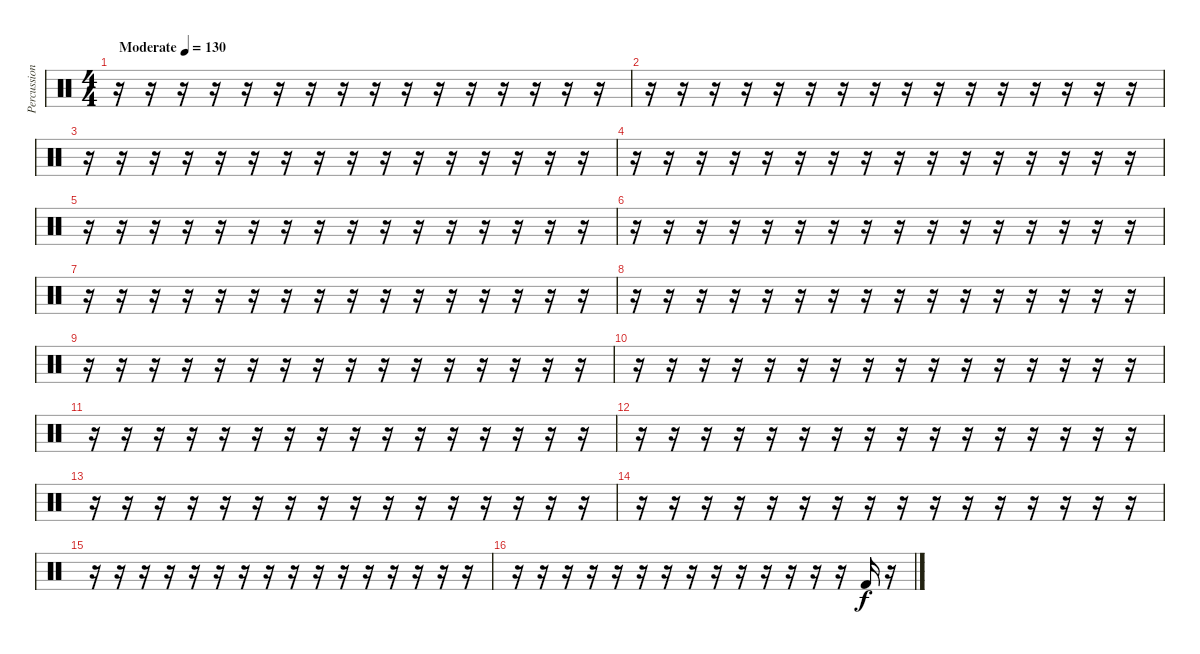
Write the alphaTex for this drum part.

\track ("Percussion" "Percussion") {instrument percussion}
\staff {score}
\articulation defaults
\ts (4 4)
\tempo (130 "Moderate")
\clef neutral
\ks c
r.16{dy f} r.16 r.16 r.16 r.16 r.16 r.16 r.16 r.16 r.16 r.16 r.16 r.16 r.16 r.16 r.16 |
r.16 r.16 r.16 r.16 r.16 r.16 r.16 r.16 r.16 r.16 r.16 r.16 r.16 r.16 r.16 r.16 |
r.16 r.16 r.16 r.16 r.16 r.16 r.16 r.16 r.16 r.16 r.16 r.16 r.16 r.16 r.16 r.16 |
r.16 r.16 r.16 r.16 r.16 r.16 r.16 r.16 r.16 r.16 r.16 r.16 r.16 r.16 r.16 r.16 |
r.16 r.16 r.16 r.16 r.16 r.16 r.16 r.16 r.16 r.16 r.16 r.16 r.16 r.16 r.16 r.16 |
r.16 r.16 r.16 r.16 r.16 r.16 r.16 r.16 r.16 r.16 r.16 r.16 r.16 r.16 r.16 r.16 |
r.16 r.16 r.16 r.16 r.16 r.16 r.16 r.16 r.16 r.16 r.16 r.16 r.16 r.16 r.16 r.16 |
r.16 r.16 r.16 r.16 r.16 r.16 r.16 r.16 r.16 r.16 r.16 r.16 r.16 r.16 r.16 r.16 |
r.16 r.16 r.16 r.16 r.16 r.16 r.16 r.16 r.16 r.16 r.16 r.16 r.16 r.16 r.16 r.16 |
r.16 r.16 r.16 r.16 r.16 r.16 r.16 r.16 r.16 r.16 r.16 r.16 r.16 r.16 r.16 r.16 |
r.16 r.16 r.16 r.16 r.16 r.16 r.16 r.16 r.16 r.16 r.16 r.16 r.16 r.16 r.16 r.16 |
r.16 r.16 r.16 r.16 r.16 r.16 r.16 r.16 r.16 r.16 r.16 r.16 r.16 r.16 r.16 r.16 |
r.16 r.16 r.16 r.16 r.16 r.16 r.16 r.16 r.16 r.16 r.16 r.16 r.16 r.16 r.16 r.16 |
r.16 r.16 r.16 r.16 r.16 r.16 r.16 r.16 r.16 r.16 r.16 r.16 r.16 r.16 r.16 r.16 |
r.16 r.16 r.16 r.16 r.16 r.16 r.16 r.16 r.16 r.16 r.16 r.16 r.16 r.16 r.16 r.16 |
r.16 r.16 r.16 r.16 r.16 r.16 r.16 r.16 r.16 r.16 r.16 r.16 r.16 r.16 "Kick (hit) 2".16 r.16
